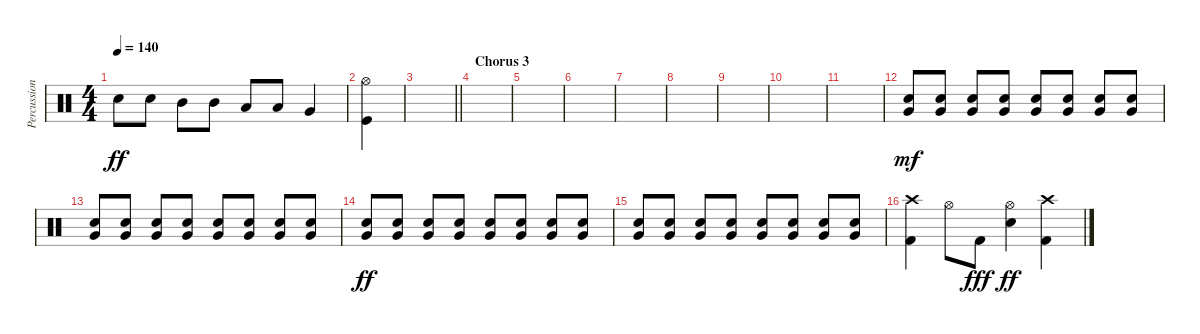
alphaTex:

\track ("Percussion" "Percussion") {instrument percussion}
\staff {score}
\articulation defaults
\ts (4 4)
\tempo 140
\clef neutral
\ks c "Snare (hit) 2".8{dy ff} "Snare (hit) 2".8 "Mid Tom (hit)".8 "Mid Tom (hit)".8 "Low Tom (hit)".8 "Low Tom (hit)".8 "Very Low Tom (hit)".4
|
("Hi-Hat (open)" "Kick (hit)").4 |
\barLineRight lightlight
|
\section ("" "Chorus 3")
|
|
|
|
|
|
|
|
("Snare (hit) 2" "Very Low Tom (hit)").8{dy mf} ("Snare (hit) 2" "Very Low Tom (hit)").8 ("Snare (hit) 2" "Very Low Tom (hit)").8 ("Snare (hit) 2" "Very Low Tom (hit)").8 ("Snare (hit) 2" "Very Low Tom (hit)").8 ("Snare (hit) 2" "Very Low Tom (hit)").8 ("Snare (hit) 2" "Very Low Tom (hit)").8 ("Snare (hit) 2" "Very Low Tom (hit)").8 |
("Snare (hit) 2" "Very Low Tom (hit)").8 ("Snare (hit) 2" "Very Low Tom (hit)").8 ("Snare (hit) 2" "Very Low Tom (hit)").8 ("Snare (hit) 2" "Very Low Tom (hit)").8 ("Snare (hit) 2" "Very Low Tom (hit)").8 ("Snare (hit) 2" "Very Low Tom (hit)").8 ("Snare (hit) 2" "Very Low Tom (hit)").8 ("Snare (hit) 2" "Very Low Tom (hit)").8 |
("Snare (hit) 2" "Very Low Tom (hit)").8{dy ff} ("Snare (hit) 2" "Very Low Tom (hit)").8 ("Snare (hit) 2" "Very Low Tom (hit)").8 ("Snare (hit) 2" "Very Low Tom (hit)").8 ("Snare (hit) 2" "Very Low Tom (hit)").8 ("Snare (hit) 2" "Very Low Tom (hit)").8 ("Snare (hit) 2" "Very Low Tom (hit)").8 ("Snare (hit) 2" "Very Low Tom (hit)").8 |
("Snare (hit) 2" "Very Low Tom (hit)").8 ("Snare (hit) 2" "Very Low Tom (hit)").8 ("Snare (hit) 2" "Very Low Tom (hit)").8 ("Snare (hit) 2" "Very Low Tom (hit)").8 ("Snare (hit) 2" "Very Low Tom (hit)").8 ("Snare (hit) 2" "Very Low Tom (hit)").8 ("Snare (hit) 2" "Very Low Tom (hit)").8 ("Snare (hit) 2" "Very Low Tom (hit)").8 |
("Crash high (hit)" "Kick (hit) 2").4 "Hi-Hat (open)".8 "Kick (hit) 2".8{dy fff} ("Hi-Hat (open)" "Snare (hit) 2").4{dy ff} ("Crash high (hit)" "Kick (hit) 2").4
